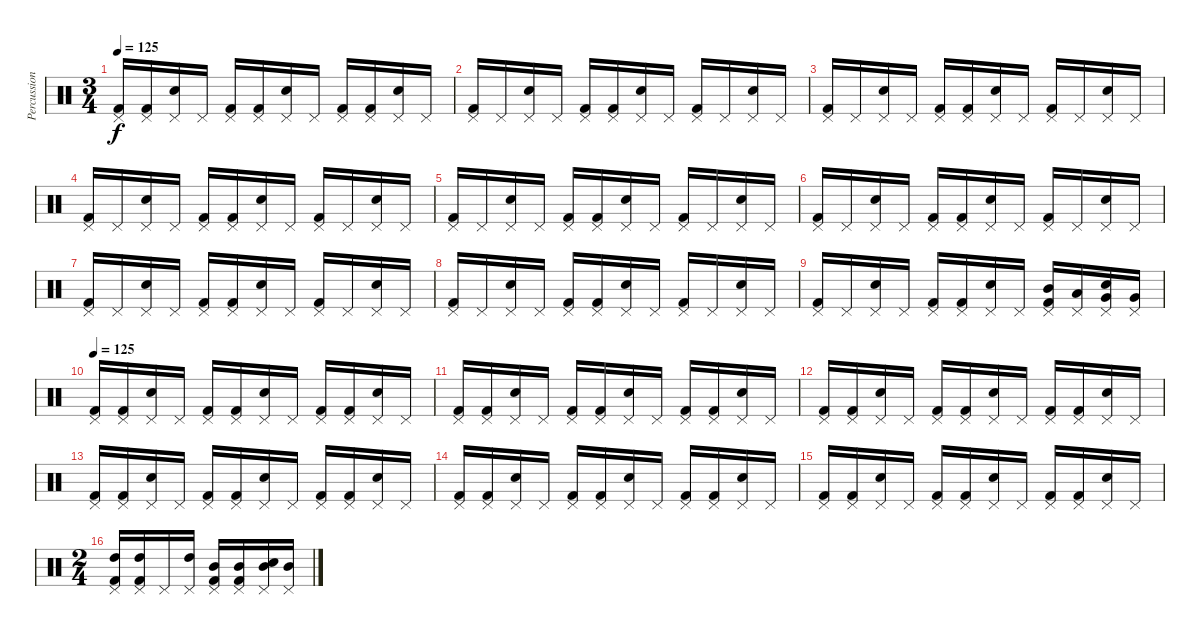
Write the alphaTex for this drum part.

\track ("Percussion" "Percussion") {instrument percussion}
\staff {score}
\articulation defaults
\ts (3 4)
\tempo 125
\clef neutral
\ks c
("Kick (hit) 2" "Pedal Hi-Hat (hit)").16{dy f} ("Kick (hit) 2" "Pedal Hi-Hat (hit)").16 ("Pedal Hi-Hat (hit)" "Snare (hit) 2").16 "Pedal Hi-Hat (hit)".16 ("Kick (hit) 2" "Pedal Hi-Hat (hit)").16 ("Kick (hit) 2" "Pedal Hi-Hat (hit)").16 ("Pedal Hi-Hat (hit)" "Snare (hit) 2").16 "Pedal Hi-Hat (hit)".16 ("Kick (hit) 2" "Pedal Hi-Hat (hit)").16 ("Kick (hit) 2" "Pedal Hi-Hat (hit)").16 ("Pedal Hi-Hat (hit)" "Snare (hit) 2").16 "Pedal Hi-Hat (hit)".16 |
("Kick (hit) 2" "Pedal Hi-Hat (hit)").16 "Pedal Hi-Hat (hit)".16 ("Pedal Hi-Hat (hit)" "Snare (hit) 2").16 "Pedal Hi-Hat (hit)".16 ("Kick (hit) 2" "Pedal Hi-Hat (hit)").16 ("Kick (hit) 2" "Pedal Hi-Hat (hit)").16 ("Pedal Hi-Hat (hit)" "Snare (hit) 2").16 "Pedal Hi-Hat (hit)".16 ("Kick (hit) 2" "Pedal Hi-Hat (hit)").16 "Pedal Hi-Hat (hit)".16 ("Pedal Hi-Hat (hit)" "Snare (hit) 2").16 "Pedal Hi-Hat (hit)".16 |
("Kick (hit) 2" "Pedal Hi-Hat (hit)").16 "Pedal Hi-Hat (hit)".16 ("Pedal Hi-Hat (hit)" "Snare (hit) 2").16 "Pedal Hi-Hat (hit)".16 ("Kick (hit) 2" "Pedal Hi-Hat (hit)").16 ("Kick (hit) 2" "Pedal Hi-Hat (hit)").16 ("Pedal Hi-Hat (hit)" "Snare (hit) 2").16 "Pedal Hi-Hat (hit)".16 ("Kick (hit) 2" "Pedal Hi-Hat (hit)").16 "Pedal Hi-Hat (hit)".16 ("Pedal Hi-Hat (hit)" "Snare (hit) 2").16 "Pedal Hi-Hat (hit)".16 |
("Kick (hit) 2" "Pedal Hi-Hat (hit)").16 "Pedal Hi-Hat (hit)".16 ("Pedal Hi-Hat (hit)" "Snare (hit) 2").16 "Pedal Hi-Hat (hit)".16 ("Kick (hit) 2" "Pedal Hi-Hat (hit)").16 ("Kick (hit) 2" "Pedal Hi-Hat (hit)").16 ("Pedal Hi-Hat (hit)" "Snare (hit) 2").16 "Pedal Hi-Hat (hit)".16 ("Kick (hit) 2" "Pedal Hi-Hat (hit)").16 "Pedal Hi-Hat (hit)".16 ("Pedal Hi-Hat (hit)" "Snare (hit) 2").16 "Pedal Hi-Hat (hit)".16 |
("Kick (hit) 2" "Pedal Hi-Hat (hit)").16 "Pedal Hi-Hat (hit)".16 ("Pedal Hi-Hat (hit)" "Snare (hit) 2").16 "Pedal Hi-Hat (hit)".16 ("Kick (hit) 2" "Pedal Hi-Hat (hit)").16 ("Kick (hit) 2" "Pedal Hi-Hat (hit)").16 ("Pedal Hi-Hat (hit)" "Snare (hit) 2").16 "Pedal Hi-Hat (hit)".16 ("Kick (hit) 2" "Pedal Hi-Hat (hit)").16 "Pedal Hi-Hat (hit)".16 ("Pedal Hi-Hat (hit)" "Snare (hit) 2").16 "Pedal Hi-Hat (hit)".16 |
("Kick (hit) 2" "Pedal Hi-Hat (hit)").16 "Pedal Hi-Hat (hit)".16 ("Pedal Hi-Hat (hit)" "Snare (hit) 2").16 "Pedal Hi-Hat (hit)".16 ("Kick (hit) 2" "Pedal Hi-Hat (hit)").16 ("Kick (hit) 2" "Pedal Hi-Hat (hit)").16 ("Pedal Hi-Hat (hit)" "Snare (hit) 2").16 "Pedal Hi-Hat (hit)".16 ("Kick (hit) 2" "Pedal Hi-Hat (hit)").16 "Pedal Hi-Hat (hit)".16 ("Pedal Hi-Hat (hit)" "Snare (hit) 2").16 "Pedal Hi-Hat (hit)".16 |
("Kick (hit) 2" "Pedal Hi-Hat (hit)").16 "Pedal Hi-Hat (hit)".16 ("Pedal Hi-Hat (hit)" "Snare (hit) 2").16 "Pedal Hi-Hat (hit)".16 ("Kick (hit) 2" "Pedal Hi-Hat (hit)").16 ("Kick (hit) 2" "Pedal Hi-Hat (hit)").16 ("Pedal Hi-Hat (hit)" "Snare (hit) 2").16 "Pedal Hi-Hat (hit)".16 ("Kick (hit) 2" "Pedal Hi-Hat (hit)").16 "Pedal Hi-Hat (hit)".16 ("Pedal Hi-Hat (hit)" "Snare (hit) 2").16 "Pedal Hi-Hat (hit)".16 |
("Kick (hit) 2" "Pedal Hi-Hat (hit)").16 "Pedal Hi-Hat (hit)".16 ("Pedal Hi-Hat (hit)" "Snare (hit) 2").16 "Pedal Hi-Hat (hit)".16 ("Kick (hit) 2" "Pedal Hi-Hat (hit)").16 ("Kick (hit) 2" "Pedal Hi-Hat (hit)").16 ("Pedal Hi-Hat (hit)" "Snare (hit) 2").16 "Pedal Hi-Hat (hit)".16 ("Kick (hit) 2" "Pedal Hi-Hat (hit)").16 "Pedal Hi-Hat (hit)".16 ("Pedal Hi-Hat (hit)" "Snare (hit) 2").16 "Pedal Hi-Hat (hit)".16 |
("Kick (hit) 2" "Pedal Hi-Hat (hit)").16 "Pedal Hi-Hat (hit)".16 ("Pedal Hi-Hat (hit)" "Snare (hit) 2").16 "Pedal Hi-Hat (hit)".16 ("Kick (hit) 2" "Pedal Hi-Hat (hit)").16 ("Kick (hit) 2" "Pedal Hi-Hat (hit)").16 ("Pedal Hi-Hat (hit)" "Snare (hit) 2").16 "Pedal Hi-Hat (hit)".16 ("Kick (hit) 2" "Pedal Hi-Hat (hit)" "Mid Tom (hit)").16 ("Pedal Hi-Hat (hit)" "Low Tom (hit)").16 ("Pedal Hi-Hat (hit)" "Very Low Tom (hit)" "Snare (hit) 2").16 ("Pedal Hi-Hat (hit)" "Very Low Tom (hit)").16 |
\tempo 125
("Kick (hit) 2" "Pedal Hi-Hat (hit)").16 ("Kick (hit) 2" "Pedal Hi-Hat (hit)").16 ("Pedal Hi-Hat (hit)" "Snare (hit) 2").16 "Pedal Hi-Hat (hit)".16 ("Kick (hit) 2" "Pedal Hi-Hat (hit)").16 ("Kick (hit) 2" "Pedal Hi-Hat (hit)").16 ("Pedal Hi-Hat (hit)" "Snare (hit) 2").16 "Pedal Hi-Hat (hit)".16 ("Kick (hit) 2" "Pedal Hi-Hat (hit)").16 ("Kick (hit) 2" "Pedal Hi-Hat (hit)").16 ("Pedal Hi-Hat (hit)" "Snare (hit) 2").16 "Pedal Hi-Hat (hit)".16 |
("Kick (hit) 2" "Pedal Hi-Hat (hit)").16 ("Kick (hit) 2" "Pedal Hi-Hat (hit)").16 ("Pedal Hi-Hat (hit)" "Snare (hit) 2").16 "Pedal Hi-Hat (hit)".16 ("Kick (hit) 2" "Pedal Hi-Hat (hit)").16 ("Kick (hit) 2" "Pedal Hi-Hat (hit)").16 ("Pedal Hi-Hat (hit)" "Snare (hit) 2").16 "Pedal Hi-Hat (hit)".16 ("Kick (hit) 2" "Pedal Hi-Hat (hit)").16 ("Kick (hit) 2" "Pedal Hi-Hat (hit)").16 ("Pedal Hi-Hat (hit)" "Snare (hit) 2").16 "Pedal Hi-Hat (hit)".16 |
("Kick (hit) 2" "Pedal Hi-Hat (hit)").16 ("Kick (hit) 2" "Pedal Hi-Hat (hit)").16 ("Pedal Hi-Hat (hit)" "Snare (hit) 2").16 "Pedal Hi-Hat (hit)".16 ("Kick (hit) 2" "Pedal Hi-Hat (hit)").16 ("Kick (hit) 2" "Pedal Hi-Hat (hit)").16 ("Pedal Hi-Hat (hit)" "Snare (hit) 2").16 "Pedal Hi-Hat (hit)".16 ("Kick (hit) 2" "Pedal Hi-Hat (hit)").16 ("Kick (hit) 2" "Pedal Hi-Hat (hit)").16 ("Pedal Hi-Hat (hit)" "Snare (hit) 2").16 "Pedal Hi-Hat (hit)".16 |
("Kick (hit) 2" "Pedal Hi-Hat (hit)").16 ("Kick (hit) 2" "Pedal Hi-Hat (hit)").16 ("Pedal Hi-Hat (hit)" "Snare (hit) 2").16 "Pedal Hi-Hat (hit)".16 ("Kick (hit) 2" "Pedal Hi-Hat (hit)").16 ("Kick (hit) 2" "Pedal Hi-Hat (hit)").16 ("Pedal Hi-Hat (hit)" "Snare (hit) 2").16 "Pedal Hi-Hat (hit)".16 ("Kick (hit) 2" "Pedal Hi-Hat (hit)").16 ("Kick (hit) 2" "Pedal Hi-Hat (hit)").16 ("Pedal Hi-Hat (hit)" "Snare (hit) 2").16 "Pedal Hi-Hat (hit)".16 |
("Kick (hit) 2" "Pedal Hi-Hat (hit)").16 ("Kick (hit) 2" "Pedal Hi-Hat (hit)").16 ("Pedal Hi-Hat (hit)" "Snare (hit) 2").16 "Pedal Hi-Hat (hit)".16 ("Kick (hit) 2" "Pedal Hi-Hat (hit)").16 ("Kick (hit) 2" "Pedal Hi-Hat (hit)").16 ("Pedal Hi-Hat (hit)" "Snare (hit) 2").16 "Pedal Hi-Hat (hit)".16 ("Kick (hit) 2" "Pedal Hi-Hat (hit)").16 ("Kick (hit) 2" "Pedal Hi-Hat (hit)").16 ("Pedal Hi-Hat (hit)" "Snare (hit) 2").16 "Pedal Hi-Hat (hit)".16 |
("Kick (hit) 2" "Pedal Hi-Hat (hit)").16 ("Kick (hit) 2" "Pedal Hi-Hat (hit)").16 ("Pedal Hi-Hat (hit)" "Snare (hit) 2").16 "Pedal Hi-Hat (hit)".16 ("Kick (hit) 2" "Pedal Hi-Hat (hit)").16 ("Kick (hit) 2" "Pedal Hi-Hat (hit)").16 ("Pedal Hi-Hat (hit)" "Snare (hit) 2").16 "Pedal Hi-Hat (hit)".16 ("Kick (hit) 2" "Pedal Hi-Hat (hit)").16 ("Kick (hit) 2" "Pedal Hi-Hat (hit)").16 ("Pedal Hi-Hat (hit)" "Snare (hit) 2").16 "Pedal Hi-Hat (hit)".16 |
\ts (2 4)
("Kick (hit) 2" "Pedal Hi-Hat (hit)" "High Tom (hit)").16 ("Kick (hit) 2" "Pedal Hi-Hat (hit)" "High Tom (hit)").16 "Pedal Hi-Hat (hit)".16 ("Pedal Hi-Hat (hit)" "High Tom (hit)").16 ("Kick (hit) 2" "Pedal Hi-Hat (hit)" "Mid Tom (hit)").16 ("Kick (hit) 2" "Pedal Hi-Hat (hit)" "Mid Tom (hit)").16 ("Pedal Hi-Hat (hit)" "Mid Tom (hit)" "Snare (hit) 2").16 ("Pedal Hi-Hat (hit)" "Mid Tom (hit)").16
